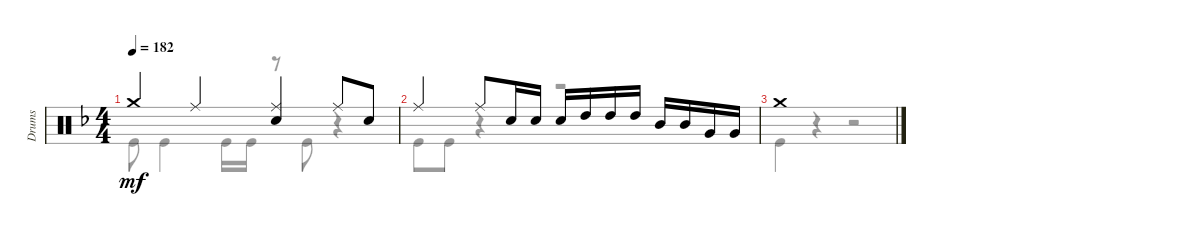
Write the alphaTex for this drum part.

\track ("Drums" "Drums") {instrument percussion}
\staff {score}
\articulation defaults
\voice
\ts (4 4)
\tempo 182
\clef neutral
\ks f "Crash medium (hit)".4{dy mf} "Ride (middle)".4
("Ride (middle)" "Snare (hit) 2").4 "Ride (middle)".8 "Snare (hit) 2".8 |
"Ride (middle)".4 "Ride (middle)".8 "Snare (hit) 2".16 "Snare (hit) 2".16 "Snare (hit) 2".16 "High Tom (hit)".16 "High Tom (hit)".16 "High Tom (hit)".16 "Mid Tom (hit)".16 "Mid Tom (hit)".16 "Very Low Tom (hit)".16 "Very Low Tom (hit)".16 |
"Crash medium (hit)".1 |
|
\voice
\clef neutral
\ottava regular
\simile none
\ks f "Kick (hit)".8{dy mf} "Kick (hit)".4 "Kick (hit)".16 "Kick (hit)".16
r.8 "Kick (hit)".8 r.4 |
"Kick (hit)".8 "Kick (hit)".8 r.4 r.2 |
"Kick (hit)".4 r.4 r.2 |
|
